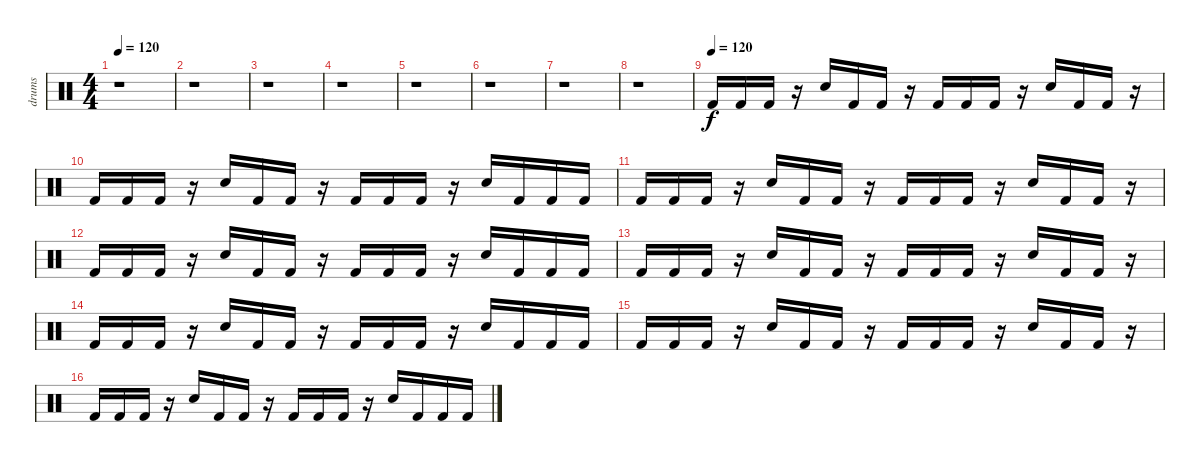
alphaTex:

\track ("drums" "drums") {instrument percussion}
\staff {score}
\articulation defaults
\ts (4 4)
\tempo 120
\clef neutral
\ks c
r.1{dy f} |
r.1 |
r.1 |
r.1 |
r.1 |
r.1 |
r.1 |
r.1 |
\tempo (120)
"Kick (hit) 2".16 "Kick (hit) 2".16 "Kick (hit) 2".16 r.16 "Electric Snare (hit)".16 "Kick (hit) 2".16 "Kick (hit) 2".16 r.16 "Kick (hit) 2".16 "Kick (hit) 2".16 "Kick (hit) 2".16 r.16 "Electric Snare (hit)".16 "Kick (hit) 2".16 "Kick (hit) 2".16 r.16 |
"Kick (hit) 2".16 "Kick (hit) 2".16 "Kick (hit) 2".16 r.16 "Electric Snare (hit)".16 "Kick (hit) 2".16 "Kick (hit) 2".16 r.16 "Kick (hit) 2".16 "Kick (hit) 2".16 "Kick (hit) 2".16 r.16 "Electric Snare (hit)".16 "Kick (hit) 2".16 "Kick (hit) 2".16 "Kick (hit) 2".16 |
"Kick (hit) 2".16 "Kick (hit) 2".16 "Kick (hit) 2".16 r.16 "Electric Snare (hit)".16 "Kick (hit) 2".16 "Kick (hit) 2".16 r.16 "Kick (hit) 2".16 "Kick (hit) 2".16 "Kick (hit) 2".16 r.16 "Electric Snare (hit)".16 "Kick (hit) 2".16 "Kick (hit) 2".16 r.16 |
"Kick (hit) 2".16 "Kick (hit) 2".16 "Kick (hit) 2".16 r.16 "Electric Snare (hit)".16 "Kick (hit) 2".16 "Kick (hit) 2".16 r.16 "Kick (hit) 2".16 "Kick (hit) 2".16 "Kick (hit) 2".16 r.16 "Electric Snare (hit)".16 "Kick (hit) 2".16 "Kick (hit) 2".16 "Kick (hit) 2".16 |
"Kick (hit) 2".16 "Kick (hit) 2".16 "Kick (hit) 2".16 r.16 "Electric Snare (hit)".16 "Kick (hit) 2".16 "Kick (hit) 2".16 r.16 "Kick (hit) 2".16 "Kick (hit) 2".16 "Kick (hit) 2".16 r.16 "Electric Snare (hit)".16 "Kick (hit) 2".16 "Kick (hit) 2".16 r.16 |
"Kick (hit) 2".16 "Kick (hit) 2".16 "Kick (hit) 2".16 r.16 "Electric Snare (hit)".16 "Kick (hit) 2".16 "Kick (hit) 2".16 r.16 "Kick (hit) 2".16 "Kick (hit) 2".16 "Kick (hit) 2".16 r.16 "Electric Snare (hit)".16 "Kick (hit) 2".16 "Kick (hit) 2".16 "Kick (hit) 2".16 |
"Kick (hit) 2".16 "Kick (hit) 2".16 "Kick (hit) 2".16 r.16 "Electric Snare (hit)".16 "Kick (hit) 2".16 "Kick (hit) 2".16 r.16 "Kick (hit) 2".16 "Kick (hit) 2".16 "Kick (hit) 2".16 r.16 "Electric Snare (hit)".16 "Kick (hit) 2".16 "Kick (hit) 2".16 r.16 |
"Kick (hit) 2".16 "Kick (hit) 2".16 "Kick (hit) 2".16 r.16 "Electric Snare (hit)".16 "Kick (hit) 2".16 "Kick (hit) 2".16 r.16 "Kick (hit) 2".16 "Kick (hit) 2".16 "Kick (hit) 2".16 r.16 "Electric Snare (hit)".16 "Kick (hit) 2".16 "Kick (hit) 2".16 "Kick (hit) 2".16
